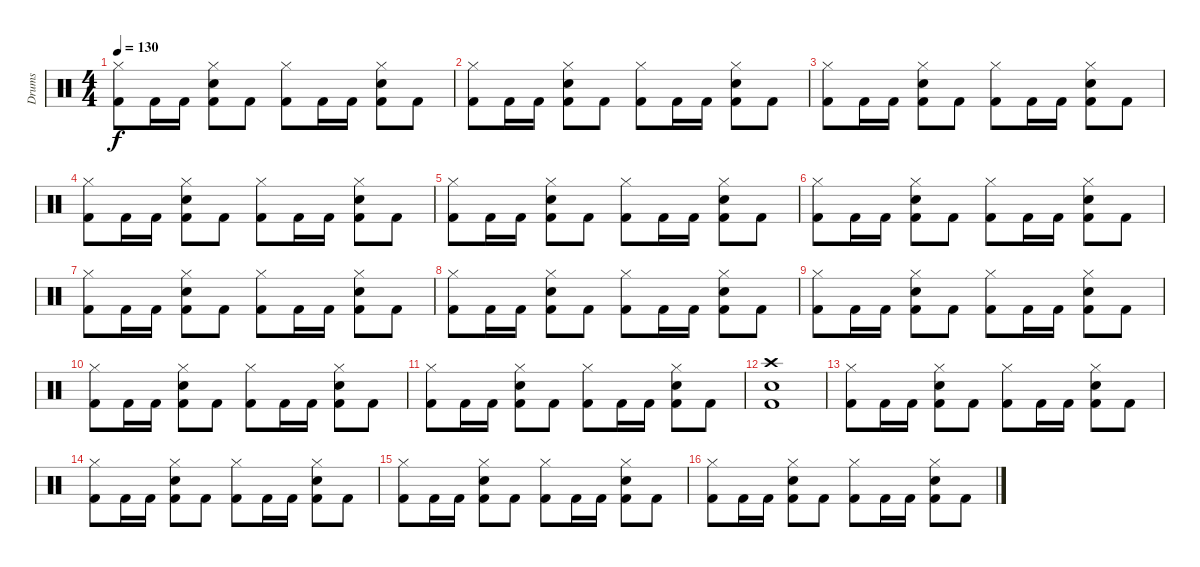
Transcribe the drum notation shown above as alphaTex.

\track ("Drums" "Drums") {instrument percussion}
\staff {score}
\articulation defaults
\ts (4 4)
\tempo 130
\clef neutral
\ks c
("Hi-Hat (closed)" "Kick (hit) 2").8{dy f} "Kick (hit) 2".16 "Kick (hit) 2".16 ("Electric Snare (hit)" "Hi-Hat (closed)" "Kick (hit) 2").8 "Kick (hit) 2".8 ("Hi-Hat (closed)" "Kick (hit) 2").8 "Kick (hit) 2".16 "Kick (hit) 2".16 ("Electric Snare (hit)" "Hi-Hat (closed)" "Kick (hit) 2").8 "Kick (hit) 2".8 |
("Hi-Hat (closed)" "Kick (hit) 2").8 "Kick (hit) 2".16 "Kick (hit) 2".16 ("Electric Snare (hit)" "Hi-Hat (closed)" "Kick (hit) 2").8 "Kick (hit) 2".8 ("Hi-Hat (closed)" "Kick (hit) 2").8 "Kick (hit) 2".16 "Kick (hit) 2".16 ("Electric Snare (hit)" "Hi-Hat (closed)" "Kick (hit) 2").8 "Kick (hit) 2".8 |
("Hi-Hat (closed)" "Kick (hit) 2").8 "Kick (hit) 2".16 "Kick (hit) 2".16 ("Electric Snare (hit)" "Hi-Hat (closed)" "Kick (hit) 2").8 "Kick (hit) 2".8 ("Hi-Hat (closed)" "Kick (hit) 2").8 "Kick (hit) 2".16 "Kick (hit) 2".16 ("Electric Snare (hit)" "Hi-Hat (closed)" "Kick (hit) 2").8 "Kick (hit) 2".8 |
("Hi-Hat (closed)" "Kick (hit) 2").8 "Kick (hit) 2".16 "Kick (hit) 2".16 ("Electric Snare (hit)" "Hi-Hat (closed)" "Kick (hit) 2").8 "Kick (hit) 2".8 ("Hi-Hat (closed)" "Kick (hit) 2").8 "Kick (hit) 2".16 "Kick (hit) 2".16 ("Electric Snare (hit)" "Hi-Hat (closed)" "Kick (hit) 2").8 "Kick (hit) 2".8 |
("Hi-Hat (closed)" "Kick (hit) 2").8 "Kick (hit) 2".16 "Kick (hit) 2".16 ("Electric Snare (hit)" "Hi-Hat (closed)" "Kick (hit) 2").8 "Kick (hit) 2".8 ("Hi-Hat (closed)" "Kick (hit) 2").8 "Kick (hit) 2".16 "Kick (hit) 2".16 ("Electric Snare (hit)" "Hi-Hat (closed)" "Kick (hit) 2").8 "Kick (hit) 2".8 |
("Hi-Hat (closed)" "Kick (hit) 2").8 "Kick (hit) 2".16 "Kick (hit) 2".16 ("Electric Snare (hit)" "Hi-Hat (closed)" "Kick (hit) 2").8 "Kick (hit) 2".8 ("Hi-Hat (closed)" "Kick (hit) 2").8 "Kick (hit) 2".16 "Kick (hit) 2".16 ("Electric Snare (hit)" "Hi-Hat (closed)" "Kick (hit) 2").8 "Kick (hit) 2".8 |
("Hi-Hat (closed)" "Kick (hit) 2").8 "Kick (hit) 2".16 "Kick (hit) 2".16 ("Electric Snare (hit)" "Hi-Hat (closed)" "Kick (hit) 2").8 "Kick (hit) 2".8 ("Hi-Hat (closed)" "Kick (hit) 2").8 "Kick (hit) 2".16 "Kick (hit) 2".16 ("Electric Snare (hit)" "Hi-Hat (closed)" "Kick (hit) 2").8 "Kick (hit) 2".8 |
("Hi-Hat (closed)" "Kick (hit) 2").8 "Kick (hit) 2".16 "Kick (hit) 2".16 ("Electric Snare (hit)" "Hi-Hat (closed)" "Kick (hit) 2").8 "Kick (hit) 2".8 ("Hi-Hat (closed)" "Kick (hit) 2").8 "Kick (hit) 2".16 "Kick (hit) 2".16 ("Electric Snare (hit)" "Hi-Hat (closed)" "Kick (hit) 2").8 "Kick (hit) 2".8 |
("Hi-Hat (closed)" "Kick (hit) 2").8 "Kick (hit) 2".16 "Kick (hit) 2".16 ("Electric Snare (hit)" "Hi-Hat (closed)" "Kick (hit) 2").8 "Kick (hit) 2".8 ("Hi-Hat (closed)" "Kick (hit) 2").8 "Kick (hit) 2".16 "Kick (hit) 2".16 ("Electric Snare (hit)" "Hi-Hat (closed)" "Kick (hit) 2").8 "Kick (hit) 2".8 |
("Hi-Hat (closed)" "Kick (hit) 2").8 "Kick (hit) 2".16 "Kick (hit) 2".16 ("Electric Snare (hit)" "Hi-Hat (closed)" "Kick (hit) 2").8 "Kick (hit) 2".8 ("Hi-Hat (closed)" "Kick (hit) 2").8 "Kick (hit) 2".16 "Kick (hit) 2".16 ("Electric Snare (hit)" "Hi-Hat (closed)" "Kick (hit) 2").8 "Kick (hit) 2".8 |
("Hi-Hat (closed)" "Kick (hit) 2").8 "Kick (hit) 2".16 "Kick (hit) 2".16 ("Electric Snare (hit)" "Hi-Hat (closed)" "Kick (hit) 2").8 "Kick (hit) 2".8 ("Hi-Hat (closed)" "Kick (hit) 2").8 "Kick (hit) 2".16 "Kick (hit) 2".16 ("Electric Snare (hit)" "Hi-Hat (closed)" "Kick (hit) 2").8 "Kick (hit) 2".8 |
("Crash high (hit)" "Electric Snare (hit)" "Kick (hit) 2").1 |
("Hi-Hat (closed)" "Kick (hit) 2").8 "Kick (hit) 2".16 "Kick (hit) 2".16 ("Electric Snare (hit)" "Hi-Hat (closed)" "Kick (hit) 2").8 "Kick (hit) 2".8 ("Hi-Hat (closed)" "Kick (hit) 2").8 "Kick (hit) 2".16 "Kick (hit) 2".16 ("Electric Snare (hit)" "Hi-Hat (closed)" "Kick (hit) 2").8 "Kick (hit) 2".8 |
("Hi-Hat (closed)" "Kick (hit) 2").8 "Kick (hit) 2".16 "Kick (hit) 2".16 ("Electric Snare (hit)" "Hi-Hat (closed)" "Kick (hit) 2").8 "Kick (hit) 2".8 ("Hi-Hat (closed)" "Kick (hit) 2").8 "Kick (hit) 2".16 "Kick (hit) 2".16 ("Electric Snare (hit)" "Hi-Hat (closed)" "Kick (hit) 2").8 "Kick (hit) 2".8 |
("Hi-Hat (closed)" "Kick (hit) 2").8 "Kick (hit) 2".16 "Kick (hit) 2".16 ("Electric Snare (hit)" "Hi-Hat (closed)" "Kick (hit) 2").8 "Kick (hit) 2".8 ("Hi-Hat (closed)" "Kick (hit) 2").8 "Kick (hit) 2".16 "Kick (hit) 2".16 ("Electric Snare (hit)" "Hi-Hat (closed)" "Kick (hit) 2").8 "Kick (hit) 2".8 |
("Hi-Hat (closed)" "Kick (hit) 2").8 "Kick (hit) 2".16 "Kick (hit) 2".16 ("Electric Snare (hit)" "Hi-Hat (closed)" "Kick (hit) 2").8 "Kick (hit) 2".8 ("Hi-Hat (closed)" "Kick (hit) 2").8 "Kick (hit) 2".16 "Kick (hit) 2".16 ("Electric Snare (hit)" "Hi-Hat (closed)" "Kick (hit) 2").8 "Kick (hit) 2".8
